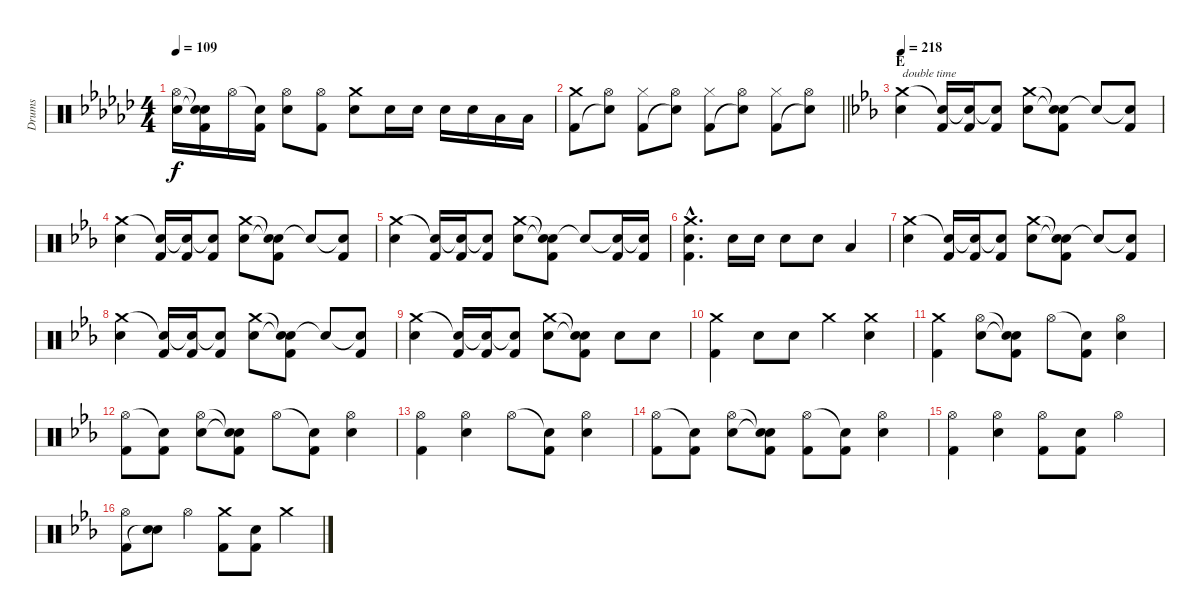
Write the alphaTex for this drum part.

\track ("Drums" "Drums") {instrument percussion}
\staff {score}
\articulation defaults
\ts (4 4)
\tempo 109
\clef neutral
\ks ebminor
("Hi-Hat (open)" "Electric Snare (hit)").16{dy f} ("Snare (hit)"{t} "Snare (hit)"{t} "Kick (hit) 2").16 "Hi-Hat (open)".16 ("Snare (hit)"{t} "Kick (hit) 2").16 ("Hi-Hat (open)" "Electric Snare (hit)").8 ("Hi-Hat (open)" "Kick (hit) 2").8 ("Crash medium (hit)" "Electric Snare (hit)").8 "Electric Snare (hit)".16 "Electric Snare (hit)".16 "Electric Snare (hit)".16 "Electric Snare (hit)".16 "Low Tom (hit)".16 "Low Floor Tom (hit)".16 |
\barLineRight lightlight
("Crash medium (hit)" "Kick (hit) 2").8 ("Hi-Hat (open)" "Snare (hit)"{t}).8 ("Hi-Hat (closed)" "Kick (hit) 2").8 ("Hi-Hat (open)" "Snare (hit)"{t}).8 ("Hi-Hat (closed)" "Kick (hit) 2").8 ("Hi-Hat (open)" "Snare (hit)"{t}).8 ("Hi-Hat (closed)" "Kick (hit) 2").8 ("Hi-Hat (open)" "Snare (hit)"{t}).8 |
\section ("" "E")
\tempo 218
\ks eb
("Crash medium (hit)" "Electric Snare (hit)").4{txt "double time"} ("Snare (hit)"{t} "Kick (hit) 2").16 ("Snare (hit)"{t} "Kick (hit) 2").16 ("Snare (hit)"{t} "Kick (hit) 2").8 ("Crash medium (hit)" "Electric Snare (hit)").8 ("Snare (hit)"{t} "Snare (hit)"{t} "Kick (hit) 2").8 "Snare (hit)"{t}.8 ("Snare (hit)"{t} "Kick (hit) 2").8 |
("Crash medium (hit)" "Electric Snare (hit)").4 ("Snare (hit)"{t} "Kick (hit) 2").16 ("Snare (hit)"{t} "Kick (hit) 2").16 ("Snare (hit)"{t} "Kick (hit) 2").8 ("Crash medium (hit)" "Electric Snare (hit)").8 ("Snare (hit)"{t} "Snare (hit)"{t} "Kick (hit) 2").8 "Snare (hit)"{t}.8 ("Snare (hit)"{t} "Kick (hit) 2").8 |
("Crash medium (hit)" "Electric Snare (hit)").4 ("Snare (hit)"{t} "Kick (hit) 2").16 ("Snare (hit)"{t} "Kick (hit) 2").16 ("Snare (hit)"{t} "Kick (hit) 2").8 ("Crash medium (hit)" "Electric Snare (hit)").8 ("Snare (hit)"{t} "Snare (hit)"{t} "Kick (hit) 2").8 "Snare (hit)"{t}.8 ("Snare (hit)"{t} "Kick (hit) 2").16 ("Snare (hit)"{t} "Kick (hit) 2").16 |
("Crash medium (hit)"{hac} "Electric Snare (hit)"{hac} "Kick (hit) 2"{hac}).4{d} "Electric Snare (hit)".16 "Electric Snare (hit)".16 "Electric Snare (hit)".8 "Electric Snare (hit)".8 "Low Floor Tom (hit)".4 |
("Crash medium (hit)" "Electric Snare (hit)").4 ("Snare (hit)"{t} "Kick (hit) 2").16 ("Snare (hit)"{t} "Kick (hit) 2").16 ("Snare (hit)"{t} "Kick (hit) 2").8 ("Crash medium (hit)" "Electric Snare (hit)").8 ("Snare (hit)"{t} "Snare (hit)"{t} "Kick (hit) 2").8 "Snare (hit)"{t}.8 ("Snare (hit)"{t} "Kick (hit) 2").8 |
("Crash medium (hit)" "Electric Snare (hit)").4 ("Snare (hit)"{t} "Kick (hit) 2").16 ("Snare (hit)"{t} "Kick (hit) 2").16 ("Snare (hit)"{t} "Kick (hit) 2").8 ("Crash medium (hit)" "Electric Snare (hit)").8 ("Snare (hit)"{t} "Snare (hit)"{t} "Kick (hit) 2").8 "Snare (hit)"{t}.8 ("Snare (hit)"{t} "Kick (hit) 2").8 |
("Crash medium (hit)" "Electric Snare (hit)").4 ("Snare (hit)"{t} "Kick (hit) 2").16 ("Snare (hit)"{t} "Kick (hit) 2").16 ("Snare (hit)"{t} "Kick (hit) 2").8 ("Crash medium (hit)" "Electric Snare (hit)").8 ("Snare (hit)"{t} "Snare (hit)"{t} "Kick (hit) 2").8 "Electric Snare (hit)".8 "Electric Snare (hit)".8 |
("Crash medium (hit)" "Kick (hit) 2").4 "Electric Snare (hit)".8 "Electric Snare (hit)".8 "Crash medium (hit)".4 ("Crash medium (hit)" "Electric Snare (hit)").4 |
("Crash medium (hit)" "Kick (hit) 2").4 ("Hi-Hat (open)" "Electric Snare (hit)").8 ("Snare (hit)"{t} "Snare (hit)"{t} "Kick (hit) 2").8 "Hi-Hat (open)".8 ("Snare (hit)"{t} "Kick (hit) 2").8 ("Hi-Hat (open)" "Electric Snare (hit)").4 |
("Hi-Hat (open)" "Kick (hit) 2").8 ("Snare (hit)"{t} "Kick (hit) 2").8 ("Hi-Hat (open)" "Electric Snare (hit)").8 ("Snare (hit)"{t} "Snare (hit)"{t} "Kick (hit) 2").8 "Hi-Hat (open)".8 ("Snare (hit)"{t} "Kick (hit) 2").8 ("Hi-Hat (open)" "Electric Snare (hit)").4 |
("Hi-Hat (open)" "Kick (hit) 2").4 ("Hi-Hat (open)" "Electric Snare (hit)").4 "Hi-Hat (open)".8 ("Snare (hit)"{t} "Kick (hit) 2").8 ("Hi-Hat (open)" "Electric Snare (hit)").4 |
("Hi-Hat (open)" "Kick (hit) 2").8 ("Snare (hit)"{t} "Kick (hit) 2").8 ("Hi-Hat (open)" "Electric Snare (hit)").8 ("Snare (hit)"{t} "Snare (hit)"{t} "Kick (hit) 2").8 ("Hi-Hat (open)" "Kick (hit) 2").8 ("Snare (hit)"{t} "Kick (hit) 2").8 ("Hi-Hat (open)" "Electric Snare (hit)").4 |
("Hi-Hat (open)" "Kick (hit) 2").4 ("Hi-Hat (open)" "Electric Snare (hit)").4 ("Hi-Hat (open)" "Kick (hit) 2").8 ("Electric Snare (hit)" "Kick (hit) 2").8 "Hi-Hat (open)".4 |
("Hi-Hat (open)" "Kick (hit) 2").8 ("Electric Snare (hit)" "Snare (hit)"{t}).8 "Hi-Hat (open)".4 ("Crash medium (hit)" "Kick (hit) 2").8 ("Electric Snare (hit)" "Kick (hit) 2").8 "Crash medium (hit)".4
